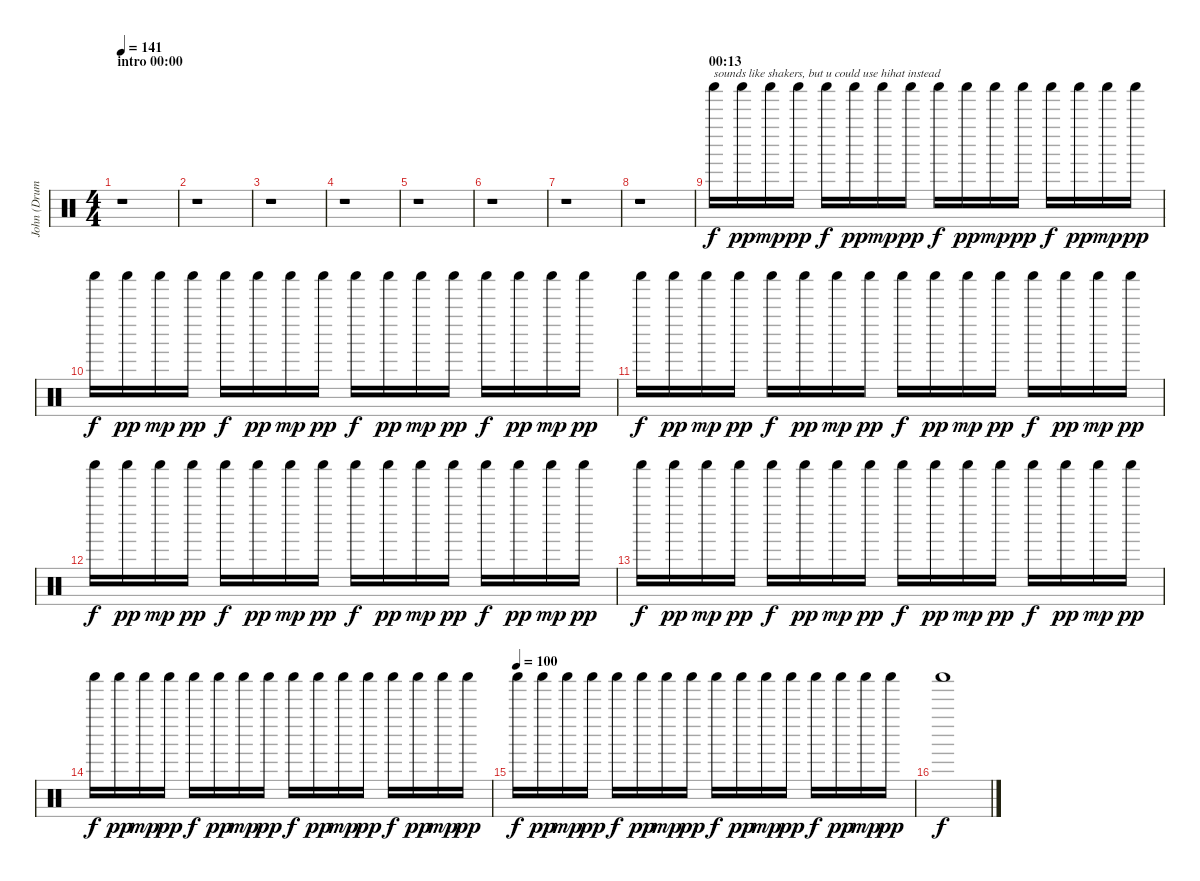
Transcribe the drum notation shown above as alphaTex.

\track ("John (Drums)" "John (Drum") {instrument percussion}
\staff {score}
\articulation defaults
\ts (4 4)
\section ("" "intro 00:00")
\tempo 141
\clef neutral
\ks c
r.1{dy f} |
r.1 |
r.1 |
r.1 |
r.1 |
r.1 |
r.1 |
r.1 |
\section ("" "00:13")
"Shaker (hit)".16{txt "sounds like shakers, but u could use hihat instead" volume 8} "Shaker (hit)".16{dy pp} "Shaker (hit)".16{dy mp} "Shaker (hit)".16{dy pp} "Shaker (hit)".16{dy f} "Shaker (hit)".16{dy pp} "Shaker (hit)".16{dy mp} "Shaker (hit)".16{dy pp} "Shaker (hit)".16{dy f} "Shaker (hit)".16{dy pp} "Shaker (hit)".16{dy mp} "Shaker (hit)".16{dy pp} "Shaker (hit)".16{dy f} "Shaker (hit)".16{dy pp} "Shaker (hit)".16{dy mp} "Shaker (hit)".16{dy pp} |
"Shaker (hit)".16{dy f} "Shaker (hit)".16{dy pp} "Shaker (hit)".16{dy mp} "Shaker (hit)".16{dy pp} "Shaker (hit)".16{dy f} "Shaker (hit)".16{dy pp} "Shaker (hit)".16{dy mp} "Shaker (hit)".16{dy pp} "Shaker (hit)".16{dy f} "Shaker (hit)".16{dy pp} "Shaker (hit)".16{dy mp} "Shaker (hit)".16{dy pp} "Shaker (hit)".16{dy f} "Shaker (hit)".16{dy pp} "Shaker (hit)".16{dy mp} "Shaker (hit)".16{dy pp} |
"Shaker (hit)".16{dy f} "Shaker (hit)".16{dy pp} "Shaker (hit)".16{dy mp} "Shaker (hit)".16{dy pp} "Shaker (hit)".16{dy f} "Shaker (hit)".16{dy pp} "Shaker (hit)".16{dy mp} "Shaker (hit)".16{dy pp} "Shaker (hit)".16{dy f} "Shaker (hit)".16{dy pp} "Shaker (hit)".16{dy mp} "Shaker (hit)".16{dy pp} "Shaker (hit)".16{dy f} "Shaker (hit)".16{dy pp} "Shaker (hit)".16{dy mp} "Shaker (hit)".16{dy pp} |
"Shaker (hit)".16{dy f} "Shaker (hit)".16{dy pp} "Shaker (hit)".16{dy mp} "Shaker (hit)".16{dy pp} "Shaker (hit)".16{dy f} "Shaker (hit)".16{dy pp} "Shaker (hit)".16{dy mp} "Shaker (hit)".16{dy pp} "Shaker (hit)".16{dy f} "Shaker (hit)".16{dy pp} "Shaker (hit)".16{dy mp} "Shaker (hit)".16{dy pp} "Shaker (hit)".16{dy f} "Shaker (hit)".16{dy pp} "Shaker (hit)".16{dy mp} "Shaker (hit)".16{dy pp} |
"Shaker (hit)".16{dy f} "Shaker (hit)".16{dy pp} "Shaker (hit)".16{dy mp} "Shaker (hit)".16{dy pp} "Shaker (hit)".16{dy f} "Shaker (hit)".16{dy pp} "Shaker (hit)".16{dy mp} "Shaker (hit)".16{dy pp} "Shaker (hit)".16{dy f} "Shaker (hit)".16{dy pp} "Shaker (hit)".16{dy mp} "Shaker (hit)".16{dy pp} "Shaker (hit)".16{dy f} "Shaker (hit)".16{dy pp} "Shaker (hit)".16{dy mp} "Shaker (hit)".16{dy pp} |
"Shaker (hit)".16{dy f} "Shaker (hit)".16{dy pp} "Shaker (hit)".16{dy mp} "Shaker (hit)".16{dy pp} "Shaker (hit)".16{dy f} "Shaker (hit)".16{dy pp} "Shaker (hit)".16{dy mp} "Shaker (hit)".16{dy pp} "Shaker (hit)".16{dy f} "Shaker (hit)".16{dy pp} "Shaker (hit)".16{dy mp} "Shaker (hit)".16{dy pp} "Shaker (hit)".16{dy f} "Shaker (hit)".16{dy pp} "Shaker (hit)".16{dy mp} "Shaker (hit)".16{dy pp} |
\tempo (100)
"Shaker (hit)".16{dy f} "Shaker (hit)".16{dy pp} "Shaker (hit)".16{dy mp} "Shaker (hit)".16{dy pp} "Shaker (hit)".16{dy f} "Shaker (hit)".16{dy pp} "Shaker (hit)".16{dy mp} "Shaker (hit)".16{dy pp} "Shaker (hit)".16{dy f} "Shaker (hit)".16{dy pp} "Shaker (hit)".16{dy mp} "Shaker (hit)".16{dy pp} "Shaker (hit)".16{dy f} "Shaker (hit)".16{dy pp} "Shaker (hit)".16{dy mp} "Shaker (hit)".16{dy pp} |
"Shaker (hit)".1{dy f}
